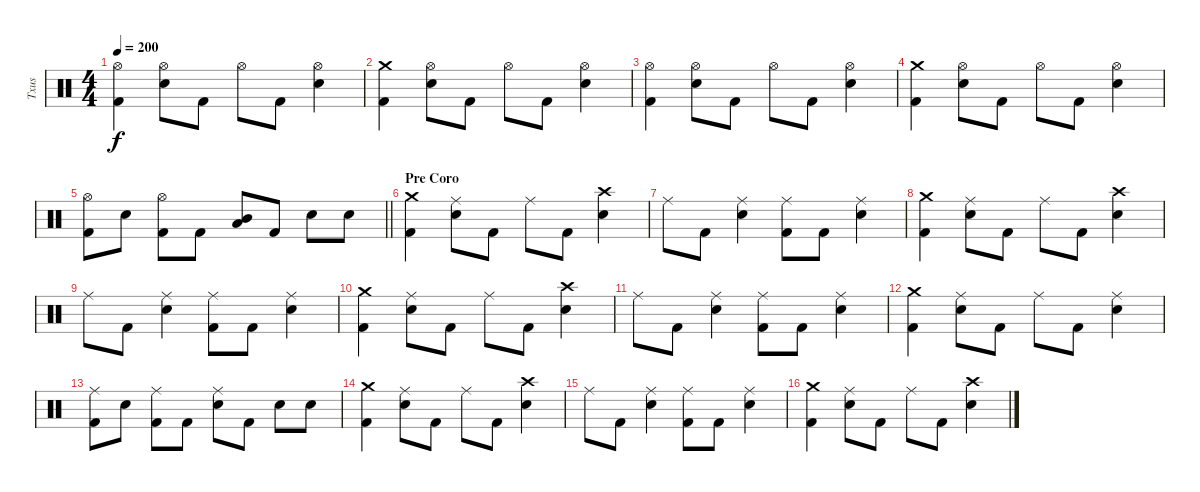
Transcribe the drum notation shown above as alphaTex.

\track ("Txus" "Txus") {instrument percussion}
\staff {score}
\articulation defaults
\ts (4 4)
\tempo 200
\clef neutral
\ks c
("Hi-Hat (open)" "Kick (hit) 2").4{dy f} ("Hi-Hat (open)" "Snare (hit) 2").8 "Kick (hit) 2".8 "Hi-Hat (open)".8 "Kick (hit) 2".8 ("Hi-Hat (open)" "Snare (hit) 2").4 |
("Crash medium (hit)" "Kick (hit) 2").4 ("Hi-Hat (open)" "Snare (hit) 2").8 "Kick (hit) 2".8 "Hi-Hat (open)".8 "Kick (hit) 2".8 ("Hi-Hat (open)" "Snare (hit) 2").4 |
("Hi-Hat (open)" "Kick (hit) 2").4 ("Hi-Hat (open)" "Snare (hit) 2").8 "Kick (hit) 2".8 "Hi-Hat (open)".8 "Kick (hit) 2".8 ("Hi-Hat (open)" "Snare (hit) 2").4 |
("Crash medium (hit)" "Kick (hit) 2").4 ("Hi-Hat (open)" "Snare (hit) 2").8 "Kick (hit) 2".8 "Hi-Hat (open)".8 "Kick (hit) 2".8 ("Hi-Hat (open)" "Snare (hit) 2").4 |
\barLineRight lightlight
("Hi-Hat (open)" "Kick (hit) 2").8 "Snare (hit) 2".8 ("Hi-Hat (open)" "Kick (hit) 2").8 "Kick (hit) 2".8 ("Mid Tom (hit)" "Low Tom (hit)").8 "Kick (hit) 2".8 "Snare (hit) 2".8 "Snare (hit) 2".8 |
\section ("" "Pre Coro")
("Crash medium (hit)" "Kick (hit) 2").4 ("Ride (middle)" "Snare (hit) 2").8 "Kick (hit) 2".8 "Ride (middle)".8 "Kick (hit) 2".8 ("Crash high (hit)" "Snare (hit) 2").4 |
"Ride (middle)".8 "Kick (hit) 2".8 ("Ride (middle)" "Snare (hit) 2").4 ("Ride (middle)" "Kick (hit) 2").8 "Kick (hit) 2".8 ("Ride (middle)" "Snare (hit) 2").4 |
("Crash medium (hit)" "Kick (hit) 2").4 ("Ride (middle)" "Snare (hit) 2").8 "Kick (hit) 2".8 "Ride (middle)".8 "Kick (hit) 2".8 ("Crash high (hit)" "Snare (hit) 2").4 |
"Ride (middle)".8 "Kick (hit) 2".8 ("Ride (middle)" "Snare (hit) 2").4 ("Ride (middle)" "Kick (hit) 2").8 "Kick (hit) 2".8 ("Ride (middle)" "Snare (hit) 2").4 |
("Crash medium (hit)" "Kick (hit) 2").4 ("Ride (middle)" "Snare (hit) 2").8 "Kick (hit) 2".8 "Ride (middle)".8 "Kick (hit) 2".8 ("Crash high (hit)" "Snare (hit) 2").4 |
"Ride (middle)".8 "Kick (hit) 2".8 ("Ride (middle)" "Snare (hit) 2").4 ("Ride (middle)" "Kick (hit) 2").8 "Kick (hit) 2".8 ("Ride (middle)" "Snare (hit) 2").4 |
("Crash medium (hit)" "Kick (hit) 2").4 ("Ride (middle)" "Snare (hit) 2").8 "Kick (hit) 2".8 "Ride (middle)".8 "Kick (hit) 2".8 ("Ride (middle)" "Snare (hit) 2").4 |
("Ride (middle)" "Kick (hit) 2").8 "Snare (hit) 2".8 ("Ride (middle)" "Kick (hit) 2").8 "Kick (hit) 2".8 ("Ride (middle)" "Snare (hit) 2").8 "Kick (hit) 2".8 "Snare (hit) 2".8 "Snare (hit) 2".8 |
("Crash medium (hit)" "Kick (hit) 2").4 ("Ride (middle)" "Snare (hit) 2").8 "Kick (hit) 2".8 "Ride (middle)".8 "Kick (hit) 2".8 ("Crash high (hit)" "Snare (hit) 2").4 |
"Ride (middle)".8 "Kick (hit) 2".8 ("Ride (middle)" "Snare (hit) 2").4 ("Ride (middle)" "Kick (hit) 2").8 "Kick (hit) 2".8 ("Ride (middle)" "Snare (hit) 2").4 |
("Crash medium (hit)" "Kick (hit) 2").4 ("Ride (middle)" "Snare (hit) 2").8 "Kick (hit) 2".8 "Ride (middle)".8 "Kick (hit) 2".8 ("Crash high (hit)" "Snare (hit) 2").4
